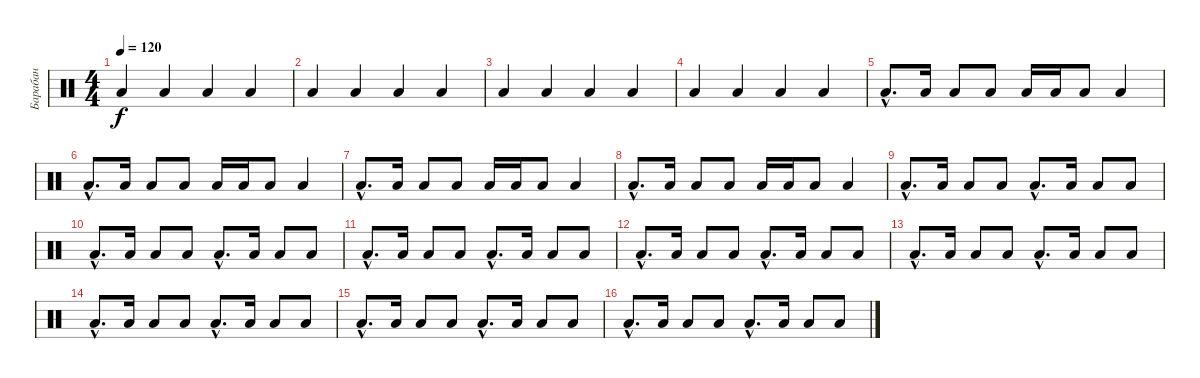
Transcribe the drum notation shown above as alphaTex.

\track ("Барабан" "Барабан") {instrument percussion}
\staff {score}
\articulation defaults
\ts (4 4)
\tempo 120
\clef neutral
\ks c "Low Floor Tom (hit)".4{dy f} "Low Floor Tom (hit)".4 "Low Floor Tom (hit)".4 "Low Floor Tom (hit)".4
|
"Low Floor Tom (hit)".4 "Low Floor Tom (hit)".4 "Low Floor Tom (hit)".4 "Low Floor Tom (hit)".4 |
"Low Floor Tom (hit)".4 "Low Floor Tom (hit)".4 "Low Floor Tom (hit)".4 "Low Floor Tom (hit)".4 |
"Low Floor Tom (hit)".4 "Low Floor Tom (hit)".4 "Low Floor Tom (hit)".4 "Low Floor Tom (hit)".4 |
"Low Floor Tom (hit)"{hac}.8{d} "Low Floor Tom (hit)".16 "Low Floor Tom (hit)".8 "Low Floor Tom (hit)".8 "Low Floor Tom (hit)".16 "Low Floor Tom (hit)".16 "Low Floor Tom (hit)".8 "Low Floor Tom (hit)".4 |
"Low Floor Tom (hit)"{hac}.8{d} "Low Floor Tom (hit)".16 "Low Floor Tom (hit)".8 "Low Floor Tom (hit)".8 "Low Floor Tom (hit)".16 "Low Floor Tom (hit)".16 "Low Floor Tom (hit)".8 "Low Floor Tom (hit)".4 |
"Low Floor Tom (hit)"{hac}.8{d} "Low Floor Tom (hit)".16 "Low Floor Tom (hit)".8 "Low Floor Tom (hit)".8 "Low Floor Tom (hit)".16 "Low Floor Tom (hit)".16 "Low Floor Tom (hit)".8 "Low Floor Tom (hit)".4 |
"Low Floor Tom (hit)"{hac}.8{d} "Low Floor Tom (hit)".16 "Low Floor Tom (hit)".8 "Low Floor Tom (hit)".8 "Low Floor Tom (hit)".16 "Low Floor Tom (hit)".16 "Low Floor Tom (hit)".8 "Low Floor Tom (hit)".4 |
"Low Floor Tom (hit)"{hac}.8{d} "Low Floor Tom (hit)".16 "Low Floor Tom (hit)".8 "Low Floor Tom (hit)".8 "Low Floor Tom (hit)"{hac}.8{d} "Low Floor Tom (hit)".16 "Low Floor Tom (hit)".8 "Low Floor Tom (hit)".8 |
"Low Floor Tom (hit)"{hac}.8{d} "Low Floor Tom (hit)".16 "Low Floor Tom (hit)".8 "Low Floor Tom (hit)".8 "Low Floor Tom (hit)"{hac}.8{d} "Low Floor Tom (hit)".16 "Low Floor Tom (hit)".8 "Low Floor Tom (hit)".8 |
"Low Floor Tom (hit)"{hac}.8{d} "Low Floor Tom (hit)".16 "Low Floor Tom (hit)".8 "Low Floor Tom (hit)".8 "Low Floor Tom (hit)"{hac}.8{d} "Low Floor Tom (hit)".16 "Low Floor Tom (hit)".8 "Low Floor Tom (hit)".8 |
"Low Floor Tom (hit)"{hac}.8{d} "Low Floor Tom (hit)".16 "Low Floor Tom (hit)".8 "Low Floor Tom (hit)".8 "Low Floor Tom (hit)"{hac}.8{d} "Low Floor Tom (hit)".16 "Low Floor Tom (hit)".8 "Low Floor Tom (hit)".8 |
"Low Floor Tom (hit)"{hac}.8{d} "Low Floor Tom (hit)".16 "Low Floor Tom (hit)".8 "Low Floor Tom (hit)".8 "Low Floor Tom (hit)"{hac}.8{d} "Low Floor Tom (hit)".16 "Low Floor Tom (hit)".8 "Low Floor Tom (hit)".8 |
"Low Floor Tom (hit)"{hac}.8{d} "Low Floor Tom (hit)".16 "Low Floor Tom (hit)".8 "Low Floor Tom (hit)".8 "Low Floor Tom (hit)"{hac}.8{d} "Low Floor Tom (hit)".16 "Low Floor Tom (hit)".8 "Low Floor Tom (hit)".8 |
"Low Floor Tom (hit)"{hac}.8{d} "Low Floor Tom (hit)".16 "Low Floor Tom (hit)".8 "Low Floor Tom (hit)".8 "Low Floor Tom (hit)"{hac}.8{d} "Low Floor Tom (hit)".16 "Low Floor Tom (hit)".8 "Low Floor Tom (hit)".8 |
"Low Floor Tom (hit)"{hac}.8{d} "Low Floor Tom (hit)".16 "Low Floor Tom (hit)".8 "Low Floor Tom (hit)".8 "Low Floor Tom (hit)"{hac}.8{d} "Low Floor Tom (hit)".16 "Low Floor Tom (hit)".8 "Low Floor Tom (hit)".8
